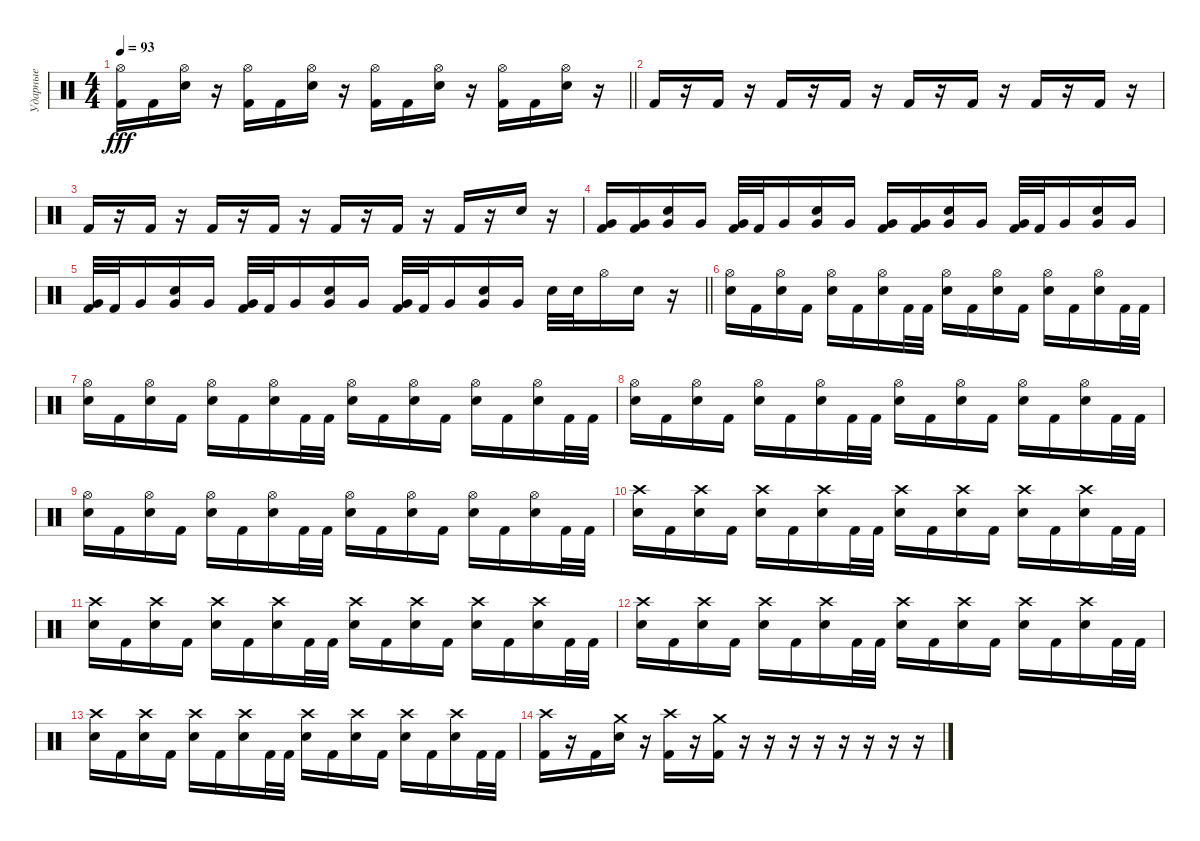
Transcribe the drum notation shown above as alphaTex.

\track ("Ударные" "Ударные") {instrument percussion}
\staff {score}
\articulation defaults
\ts (4 4)
\tempo 93
\clef neutral
\barLineRight lightlight
\ks c
("Hi-Hat (open)" "Kick (hit) 2").16{dy fff} "Kick (hit) 2".16 ("Hi-Hat (open)" "Electric Snare (hit)").16 r.16 ("Hi-Hat (open)" "Kick (hit) 2").16 "Kick (hit) 2".16 ("Hi-Hat (open)" "Electric Snare (hit)").16 r.16 ("Hi-Hat (open)" "Kick (hit) 2").16 "Kick (hit) 2".16 ("Hi-Hat (open)" "Electric Snare (hit)").16 r.16 ("Hi-Hat (open)" "Kick (hit) 2").16 "Kick (hit) 2".16 ("Hi-Hat (open)" "Electric Snare (hit)").16 r.16 |
\section ("" "")
"Kick (hit) 2".16 r.16 "Kick (hit) 2".16 r.16 "Kick (hit) 2".16 r.16 "Kick (hit) 2".16 r.16 "Kick (hit) 2".16 r.16 "Kick (hit) 2".16 r.16 "Kick (hit) 2".16 r.16 "Kick (hit) 2".16 r.16 |
"Kick (hit) 2".16 r.16 "Kick (hit) 2".16 r.16 "Kick (hit) 2".16 r.16 "Kick (hit) 2".16 r.16 "Kick (hit) 2".16 r.16 "Kick (hit) 2".16 r.16 "Kick (hit) 2".16 r.16 "Electric Snare (hit)".16 r.16 |
("Very Low Tom (hit)" "Kick (hit) 2").16 ("Very Low Tom (hit)" "Kick (hit) 2").16 ("Very Low Tom (hit)" "Electric Snare (hit)").16 "Very Low Tom (hit)".16 ("Very Low Tom (hit)" "Kick (hit) 2").32 "Kick (hit) 2".32 "Very Low Tom (hit)".16 ("Very Low Tom (hit)" "Electric Snare (hit)").16 "Very Low Tom (hit)".16 ("Very Low Tom (hit)" "Kick (hit) 2").16 ("Very Low Tom (hit)" "Kick (hit) 2").16 ("Very Low Tom (hit)" "Electric Snare (hit)").16 "Very Low Tom (hit)".16 ("Very Low Tom (hit)" "Kick (hit) 2").32 "Kick (hit) 2".32 "Very Low Tom (hit)".16 ("Very Low Tom (hit)" "Electric Snare (hit)").16 "Very Low Tom (hit)".16 |
\barLineRight lightlight
("Very Low Tom (hit)" "Kick (hit) 2").32 "Kick (hit) 2".32 "Very Low Tom (hit)".16 ("Very Low Tom (hit)" "Electric Snare (hit)").16 "Very Low Tom (hit)".16 ("Very Low Tom (hit)" "Kick (hit) 2").32 "Kick (hit) 2".32 "Very Low Tom (hit)".16 ("Very Low Tom (hit)" "Electric Snare (hit)").16 "Very Low Tom (hit)".16 ("Very Low Tom (hit)" "Kick (hit) 2").32 "Kick (hit) 2".32 "Very Low Tom (hit)".16 ("Very Low Tom (hit)" "Electric Snare (hit)").16 "Very Low Tom (hit)".16 "Electric Snare (hit)".32 "Electric Snare (hit)".32 "Hi-Hat (open)".16 "Electric Snare (hit)".16 r.16 |
\section ("" "")
("Hi-Hat (open)" "Electric Snare (hit)").16 "Kick (hit) 2".16 ("Hi-Hat (open)" "Electric Snare (hit)").16 "Kick (hit) 2".16 ("Hi-Hat (open)" "Electric Snare (hit)").16 "Kick (hit) 2".16 ("Hi-Hat (open)" "Electric Snare (hit)").16 "Kick (hit) 2".32 "Kick (hit) 2".32 ("Hi-Hat (open)" "Electric Snare (hit)").16 "Kick (hit) 2".16 ("Hi-Hat (open)" "Electric Snare (hit)").16 "Kick (hit) 2".16 ("Hi-Hat (open)" "Electric Snare (hit)").16 "Kick (hit) 2".16 ("Hi-Hat (open)" "Electric Snare (hit)").16 "Kick (hit) 2".32 "Kick (hit) 2".32 |
("Hi-Hat (open)" "Electric Snare (hit)").16 "Kick (hit) 2".16 ("Hi-Hat (open)" "Electric Snare (hit)").16 "Kick (hit) 2".16 ("Hi-Hat (open)" "Electric Snare (hit)").16 "Kick (hit) 2".16 ("Hi-Hat (open)" "Electric Snare (hit)").16 "Kick (hit) 2".32 "Kick (hit) 2".32 ("Hi-Hat (open)" "Electric Snare (hit)").16 "Kick (hit) 2".16 ("Hi-Hat (open)" "Electric Snare (hit)").16 "Kick (hit) 2".16 ("Hi-Hat (open)" "Electric Snare (hit)").16 "Kick (hit) 2".16 ("Hi-Hat (open)" "Electric Snare (hit)").16 "Kick (hit) 2".32 "Kick (hit) 2".32 |
("Hi-Hat (open)" "Electric Snare (hit)").16 "Kick (hit) 2".16 ("Hi-Hat (open)" "Electric Snare (hit)").16 "Kick (hit) 2".16 ("Hi-Hat (open)" "Electric Snare (hit)").16 "Kick (hit) 2".16 ("Hi-Hat (open)" "Electric Snare (hit)").16 "Kick (hit) 2".32 "Kick (hit) 2".32 ("Hi-Hat (open)" "Electric Snare (hit)").16 "Kick (hit) 2".16 ("Hi-Hat (open)" "Electric Snare (hit)").16 "Kick (hit) 2".16 ("Hi-Hat (open)" "Electric Snare (hit)").16 "Kick (hit) 2".16 ("Hi-Hat (open)" "Electric Snare (hit)").16 "Kick (hit) 2".32 "Kick (hit) 2".32 |
("Hi-Hat (open)" "Electric Snare (hit)").16 "Kick (hit) 2".16 ("Hi-Hat (open)" "Electric Snare (hit)").16 "Kick (hit) 2".16 ("Hi-Hat (open)" "Electric Snare (hit)").16 "Kick (hit) 2".16 ("Hi-Hat (open)" "Electric Snare (hit)").16 "Kick (hit) 2".32 "Kick (hit) 2".32 ("Hi-Hat (open)" "Electric Snare (hit)").16 "Kick (hit) 2".16 ("Hi-Hat (open)" "Electric Snare (hit)").16 "Kick (hit) 2".16 ("Hi-Hat (open)" "Electric Snare (hit)").16 "Kick (hit) 2".16 ("Hi-Hat (open)" "Electric Snare (hit)").16 "Kick (hit) 2".32 "Kick (hit) 2".32 |
("Crash high (hit)" "Electric Snare (hit)").16 "Kick (hit) 2".16 ("Crash high (hit)" "Electric Snare (hit)").16 "Kick (hit) 2".16 ("Crash high (hit)" "Electric Snare (hit)").16 "Kick (hit) 2".16 ("Crash high (hit)" "Electric Snare (hit)").16 "Kick (hit) 2".32 "Kick (hit) 2".32 ("Crash high (hit)" "Electric Snare (hit)").16 "Kick (hit) 2".16 ("Crash high (hit)" "Electric Snare (hit)").16 "Kick (hit) 2".16 ("Crash high (hit)" "Electric Snare (hit)").16 "Kick (hit) 2".16 ("Crash high (hit)" "Electric Snare (hit)").16 "Kick (hit) 2".32 "Kick (hit) 2".32 |
("Crash high (hit)" "Electric Snare (hit)").16 "Kick (hit) 2".16 ("Crash high (hit)" "Electric Snare (hit)").16 "Kick (hit) 2".16 ("Crash high (hit)" "Electric Snare (hit)").16 "Kick (hit) 2".16 ("Crash high (hit)" "Electric Snare (hit)").16 "Kick (hit) 2".32 "Kick (hit) 2".32 ("Crash high (hit)" "Electric Snare (hit)").16 "Kick (hit) 2".16 ("Crash high (hit)" "Electric Snare (hit)").16 "Kick (hit) 2".16 ("Crash high (hit)" "Electric Snare (hit)").16 "Kick (hit) 2".16 ("Crash high (hit)" "Electric Snare (hit)").16 "Kick (hit) 2".32 "Kick (hit) 2".32 |
("Crash high (hit)" "Electric Snare (hit)").16 "Kick (hit) 2".16 ("Crash high (hit)" "Electric Snare (hit)").16 "Kick (hit) 2".16 ("Crash high (hit)" "Electric Snare (hit)").16 "Kick (hit) 2".16 ("Crash high (hit)" "Electric Snare (hit)").16 "Kick (hit) 2".32 "Kick (hit) 2".32 ("Crash high (hit)" "Electric Snare (hit)").16 "Kick (hit) 2".16 ("Crash high (hit)" "Electric Snare (hit)").16 "Kick (hit) 2".16 ("Crash high (hit)" "Electric Snare (hit)").16 "Kick (hit) 2".16 ("Crash high (hit)" "Electric Snare (hit)").16 "Kick (hit) 2".32 "Kick (hit) 2".32 |
("Crash high (hit)" "Electric Snare (hit)").16 "Kick (hit) 2".16 ("Crash high (hit)" "Electric Snare (hit)").16 "Kick (hit) 2".16 ("Crash high (hit)" "Electric Snare (hit)").16 "Kick (hit) 2".16 ("Crash high (hit)" "Electric Snare (hit)").16 "Kick (hit) 2".32 "Kick (hit) 2".32 ("Crash high (hit)" "Electric Snare (hit)").16 "Kick (hit) 2".16 ("Crash high (hit)" "Electric Snare (hit)").16 "Kick (hit) 2".16 ("Crash high (hit)" "Electric Snare (hit)").16 "Kick (hit) 2".16 ("Crash high (hit)" "Electric Snare (hit)").16 "Kick (hit) 2".32 "Kick (hit) 2".32 |
("Crash high (hit)" "Kick (hit) 2").16 r.16 "Kick (hit) 2".16 ("Crash medium (hit)" "Electric Snare (hit)").16 r.16 ("Crash high (hit)" "Kick (hit) 2").16 r.16 ("Crash medium (hit)" "Kick (hit) 2").16 r.16 r.16 r.16 r.16 r.16 r.16 r.16 r.16
